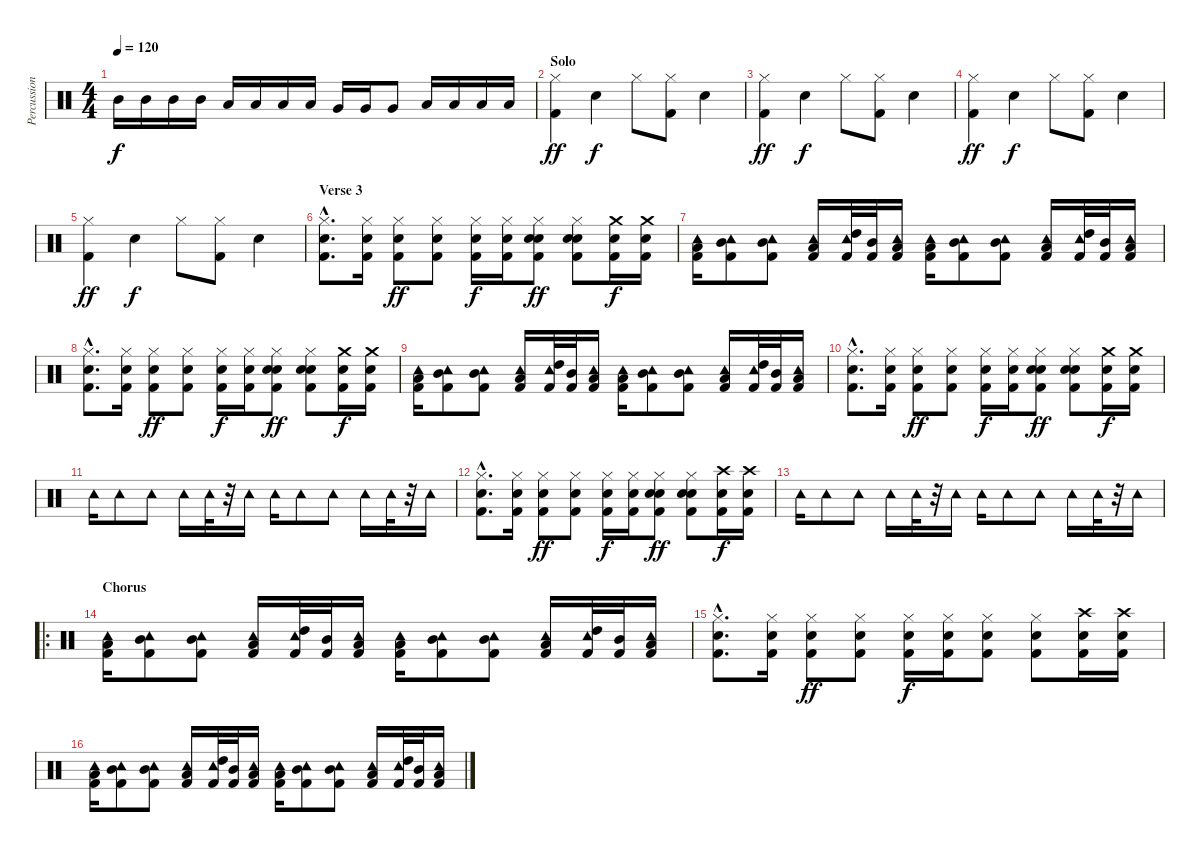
\track ("Percussion" "Percussion") {instrument percussion}
\staff {score}
\articulation defaults
\ts (4 4)
\tempo 120
\clef neutral
\ks c "Mid Tom (hit)".16{dy f} "Mid Tom (hit)".16 "Mid Tom (hit)".16 "Mid Tom (hit)".16 "Low Tom (hit)".16 "Low Tom (hit)".16 "Low Tom (hit)".16 "Low Tom (hit)".16 "Very Low Tom (hit)".16 "Very Low Tom (hit)".16 "Very Low Tom (hit)".8 "Low Floor Tom (hit)".16 "Low Floor Tom (hit)".16 "Low Floor Tom (hit)".16 "Low Floor Tom (hit)".16
|
\section ("" "Solo")
("Hi-Hat (closed)" "Kick (hit) 2").4{dy ff} "Electric Snare (hit)".4{dy f} "Hi-Hat (closed)".8 ("Hi-Hat (closed)" "Kick (hit) 2").8 "Electric Snare (hit)".4 |
("Hi-Hat (closed)" "Kick (hit) 2").4{dy ff} "Electric Snare (hit)".4{dy f} "Hi-Hat (closed)".8 ("Hi-Hat (closed)" "Kick (hit) 2").8 "Electric Snare (hit)".4 |
("Hi-Hat (closed)" "Kick (hit) 2").4{dy ff} "Electric Snare (hit)".4{dy f} "Hi-Hat (closed)".8 ("Hi-Hat (closed)" "Kick (hit) 2").8 "Electric Snare (hit)".4 |
("Hi-Hat (closed)" "Kick (hit) 2").4{dy ff} "Electric Snare (hit)".4{dy f} "Hi-Hat (closed)".8 ("Hi-Hat (closed)" "Kick (hit) 2").8 "Electric Snare (hit)".4 |
\section ("" "Verse 3")
("Hi-Hat (closed)"{hac} "Snare (hit) 2"{hac} "Kick (hit) 2"{hac}).8{d} ("Hi-Hat (closed)" "Snare (hit) 2" "Kick (hit) 2").16 ("Hi-Hat (closed)" "Hand Clap (hit)" "Kick (hit) 2").8{dy ff} ("Hi-Hat (closed)" "Hand Clap (hit)" "Kick (hit) 2").8 ("Hi-Hat (closed)" "Snare (hit) 2" "Kick (hit) 2").16{dy f} ("Hi-Hat (closed)" "Snare (hit) 2" "Kick (hit) 2").16 ("Hi-Hat (closed)" "Hand Clap (hit)" "Electric Snare (hit)" "Kick (hit) 2").8{dy ff} ("Hi-Hat (closed)" "Hand Clap (hit)" "Electric Snare (hit)" "Kick (hit) 2").8 ("Crash medium (hit)" "Electric Snare (hit)" "Kick (hit) 2").16{dy f} ("Crash medium (hit)" "Electric Snare (hit)" "Kick (hit) 2").16 |
("Tambourine (hit)" "Low Tom (hit)" "Kick (hit) 2").16 ("Tambourine (hit)" "Mid Tom (hit)" "Kick (hit) 2").8 ("Tambourine (hit)" "Mid Tom (hit)" "Kick (hit) 2").8 ("Tambourine (hit)" "Low Tom (hit)" "Kick (hit) 2").16 ("Tambourine (hit)" "High Tom (hit)" "Kick (hit) 2").32 ("Mid Tom (hit)" "Kick (hit) 2").32 ("Tambourine (hit)" "Low Tom (hit)" "Kick (hit) 2").16 ("Tambourine (hit)" "Low Tom (hit)" "Kick (hit) 2").16 ("Tambourine (hit)" "Mid Tom (hit)" "Kick (hit) 2").8 ("Tambourine (hit)" "Mid Tom (hit)" "Kick (hit) 2").8 ("Tambourine (hit)" "Low Tom (hit)" "Kick (hit) 2").16 ("Tambourine (hit)" "High Tom (hit)" "Kick (hit) 2").32 ("Mid Tom (hit)" "Kick (hit) 2").32 ("Tambourine (hit)" "Low Tom (hit)" "Kick (hit) 2").16 |
("Hi-Hat (closed)"{hac} "Snare (hit) 2"{hac} "Kick (hit) 2"{hac}).8{d} ("Hi-Hat (closed)" "Snare (hit) 2" "Kick (hit) 2").16 ("Hi-Hat (closed)" "Hand Clap (hit)" "Kick (hit) 2").8{dy ff} ("Hi-Hat (closed)" "Hand Clap (hit)" "Kick (hit) 2").8 ("Hi-Hat (closed)" "Snare (hit) 2" "Kick (hit) 2").16{dy f} ("Hi-Hat (closed)" "Snare (hit) 2" "Kick (hit) 2").16 ("Hi-Hat (closed)" "Hand Clap (hit)" "Electric Snare (hit)" "Kick (hit) 2").8{dy ff} ("Hi-Hat (closed)" "Hand Clap (hit)" "Electric Snare (hit)" "Kick (hit) 2").8 ("Crash medium (hit)" "Electric Snare (hit)" "Kick (hit) 2").16{dy f} ("Crash medium (hit)" "Electric Snare (hit)" "Kick (hit) 2").16 |
("Tambourine (hit)" "Low Tom (hit)" "Kick (hit) 2").16 ("Tambourine (hit)" "Mid Tom (hit)" "Kick (hit) 2").8 ("Tambourine (hit)" "Mid Tom (hit)" "Kick (hit) 2").8 ("Tambourine (hit)" "Low Tom (hit)" "Kick (hit) 2").16 ("Tambourine (hit)" "High Tom (hit)" "Kick (hit) 2").32 ("Mid Tom (hit)" "Kick (hit) 2").32 ("Tambourine (hit)" "Low Tom (hit)" "Kick (hit) 2").16 ("Tambourine (hit)" "Low Tom (hit)" "Kick (hit) 2").16 ("Tambourine (hit)" "Mid Tom (hit)" "Kick (hit) 2").8 ("Tambourine (hit)" "Mid Tom (hit)" "Kick (hit) 2").8 ("Tambourine (hit)" "Low Tom (hit)" "Kick (hit) 2").16 ("Tambourine (hit)" "High Tom (hit)" "Kick (hit) 2").32 ("Mid Tom (hit)" "Kick (hit) 2").32 ("Tambourine (hit)" "Low Tom (hit)" "Kick (hit) 2").16 |
("Hi-Hat (closed)"{hac} "Snare (hit) 2"{hac} "Kick (hit) 2"{hac}).8{d} ("Hi-Hat (closed)" "Snare (hit) 2" "Kick (hit) 2").16 ("Hi-Hat (closed)" "Hand Clap (hit)" "Kick (hit) 2").8{dy ff} ("Hi-Hat (closed)" "Hand Clap (hit)" "Kick (hit) 2").8 ("Hi-Hat (closed)" "Snare (hit) 2" "Kick (hit) 2").16{dy f} ("Hi-Hat (closed)" "Snare (hit) 2" "Kick (hit) 2").16 ("Hi-Hat (closed)" "Hand Clap (hit)" "Electric Snare (hit)" "Kick (hit) 2").8{dy ff} ("Hi-Hat (closed)" "Hand Clap (hit)" "Electric Snare (hit)" "Kick (hit) 2").8 ("Crash medium (hit)" "Electric Snare (hit)" "Kick (hit) 2").16{dy f} ("Crash medium (hit)" "Electric Snare (hit)" "Kick (hit) 2").16 |
"Tambourine (hit)".16 "Tambourine (hit)".8 "Tambourine (hit)".8 "Tambourine (hit)".16 "Tambourine (hit)".32 r.32 "Tambourine (hit)".16 "Tambourine (hit)".16 "Tambourine (hit)".8 "Tambourine (hit)".8 "Tambourine (hit)".16 "Tambourine (hit)".32 r.32 "Tambourine (hit)".16 |
("Hi-Hat (closed)"{hac} "Snare (hit) 2"{hac} "Kick (hit) 2"{hac}).8{d} ("Hi-Hat (closed)" "Snare (hit) 2" "Kick (hit) 2").16 ("Hi-Hat (closed)" "Hand Clap (hit)" "Kick (hit) 2").8{dy ff} ("Hi-Hat (closed)" "Hand Clap (hit)" "Kick (hit) 2").8 ("Hi-Hat (closed)" "Snare (hit) 2" "Kick (hit) 2").16{dy f} ("Hi-Hat (closed)" "Snare (hit) 2" "Kick (hit) 2").16 ("Hi-Hat (closed)" "Hand Clap (hit)" "Electric Snare (hit)" "Kick (hit) 2").8{dy ff} ("Hi-Hat (closed)" "Hand Clap (hit)" "Electric Snare (hit)" "Kick (hit) 2").8 ("Crash high (hit)" "Electric Snare (hit)" "Kick (hit) 2").16{dy f} ("Crash high (hit)" "Electric Snare (hit)" "Kick (hit) 2").16 |
"Tambourine (hit)".16 "Tambourine (hit)".8 "Tambourine (hit)".8 "Tambourine (hit)".16 "Tambourine (hit)".32 r.32 "Tambourine (hit)".16 "Tambourine (hit)".16 "Tambourine (hit)".8 "Tambourine (hit)".8 "Tambourine (hit)".16 "Tambourine (hit)".32 r.32 "Tambourine (hit)".16 |
\ro
\section ("" "Chorus")
("Tambourine (hit)" "Low Tom (hit)" "Kick (hit) 2").16 ("Tambourine (hit)" "Mid Tom (hit)" "Kick (hit) 2").8 ("Tambourine (hit)" "Mid Tom (hit)" "Kick (hit) 2").8 ("Tambourine (hit)" "Low Tom (hit)" "Kick (hit) 2").16 ("Tambourine (hit)" "High Tom (hit)" "Kick (hit) 2").32 ("Mid Tom (hit)" "Kick (hit) 2").32 ("Tambourine (hit)" "Low Tom (hit)" "Kick (hit) 2").16 ("Tambourine (hit)" "Low Tom (hit)" "Kick (hit) 2").16 ("Tambourine (hit)" "Mid Tom (hit)" "Kick (hit) 2").8 ("Tambourine (hit)" "Mid Tom (hit)" "Kick (hit) 2").8 ("Tambourine (hit)" "Low Tom (hit)" "Kick (hit) 2").16 ("Tambourine (hit)" "High Tom (hit)" "Kick (hit) 2").32 ("Mid Tom (hit)" "Kick (hit) 2").32 ("Tambourine (hit)" "Low Tom (hit)" "Kick (hit) 2").16 |
("Hi-Hat (closed)"{hac} "Snare (hit) 2"{hac} "Kick (hit) 2"{hac}).8{d} ("Hi-Hat (closed)" "Snare (hit) 2" "Kick (hit) 2").16 ("Hi-Hat (closed)" "Electric Snare (hit)" "Kick (hit) 2").8{dy ff} ("Hi-Hat (closed)" "Electric Snare (hit)" "Kick (hit) 2").8 ("Hi-Hat (closed)" "Snare (hit) 2" "Kick (hit) 2").16{dy f} ("Hi-Hat (closed)" "Snare (hit) 2" "Kick (hit) 2").16 ("Hi-Hat (closed)" "Electric Snare (hit)" "Kick (hit) 2").8 ("Hi-Hat (closed)" "Electric Snare (hit)" "Kick (hit) 2").8 ("Crash high (hit)" "Electric Snare (hit)" "Kick (hit) 2").16 ("Crash high (hit)" "Electric Snare (hit)" "Kick (hit) 2").16 |
("Tambourine (hit)" "Low Tom (hit)" "Kick (hit) 2").16 ("Tambourine (hit)" "Mid Tom (hit)" "Kick (hit) 2").8 ("Tambourine (hit)" "Mid Tom (hit)" "Kick (hit) 2").8 ("Tambourine (hit)" "Low Tom (hit)" "Kick (hit) 2").16 ("Tambourine (hit)" "High Tom (hit)" "Kick (hit) 2").32 ("Mid Tom (hit)" "Kick (hit) 2").32 ("Tambourine (hit)" "Low Tom (hit)" "Kick (hit) 2").16 ("Tambourine (hit)" "Low Tom (hit)" "Kick (hit) 2").16 ("Tambourine (hit)" "Mid Tom (hit)" "Kick (hit) 2").8 ("Tambourine (hit)" "Mid Tom (hit)" "Kick (hit) 2").8 ("Tambourine (hit)" "Low Tom (hit)" "Kick (hit) 2").16 ("Tambourine (hit)" "High Tom (hit)" "Kick (hit) 2").32 ("Mid Tom (hit)" "Kick (hit) 2").32 ("Tambourine (hit)" "Low Tom (hit)" "Kick (hit) 2").16
